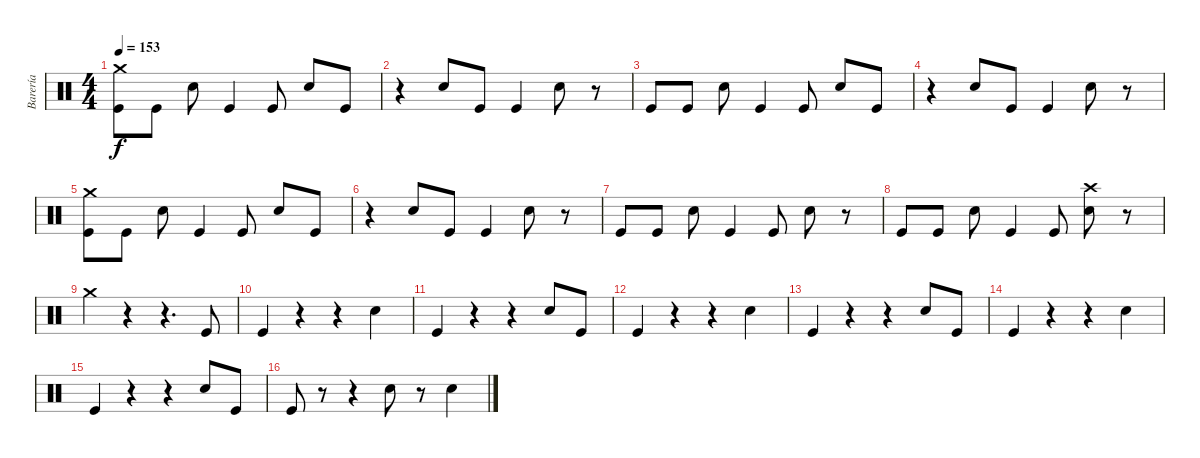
\track ("Barería" "Barería") {instrument percussion}
\staff {score}
\articulation defaults
\ts (4 4)
\tempo 153
\clef neutral
\ks c
("Crash medium (hit)" "Kick (hit)").8{dy f} "Kick (hit)".8 "Snare (hit) 2".8 "Kick (hit)".4 "Kick (hit)".8 "Snare (hit) 2".8 "Kick (hit)".8 |
r.4 "Snare (hit) 2".8 "Kick (hit)".8 "Kick (hit)".4 "Snare (hit) 2".8 r.8 |
"Kick (hit)".8 "Kick (hit)".8 "Snare (hit) 2".8 "Kick (hit)".4 "Kick (hit)".8 "Snare (hit) 2".8 "Kick (hit)".8 |
r.4 "Snare (hit) 2".8 "Kick (hit)".8 "Kick (hit)".4 "Snare (hit) 2".8 r.8 |
("Crash medium (hit)" "Kick (hit)").8 "Kick (hit)".8 "Snare (hit) 2".8 "Kick (hit)".4 "Kick (hit)".8 "Snare (hit) 2".8 "Kick (hit)".8 |
r.4 "Snare (hit) 2".8 "Kick (hit)".8 "Kick (hit)".4 "Snare (hit) 2".8 r.8 |
"Kick (hit)".8 "Kick (hit)".8 "Snare (hit) 2".8 "Kick (hit)".4 "Kick (hit)".8 "Snare (hit) 2".8 r.8 |
"Kick (hit)".8 "Kick (hit)".8 "Snare (hit) 2".8 "Kick (hit)".4 "Kick (hit)".8 ("Crash high (hit)" "Snare (hit) 2").8 r.8 |
"Crash medium (hit)".4 r.4 r.4{d} "Kick (hit)".8 |
"Kick (hit)".4 r.4 r.4 "Snare (hit) 2".4 |
"Kick (hit)".4 r.4 r.4 "Snare (hit) 2".8 "Kick (hit)".8 |
"Kick (hit)".4 r.4 r.4 "Snare (hit) 2".4 |
"Kick (hit)".4 r.4 r.4 "Snare (hit) 2".8 "Kick (hit)".8 |
"Kick (hit)".4 r.4 r.4 "Snare (hit) 2".4 |
"Kick (hit)".4 r.4 r.4 "Snare (hit) 2".8 "Kick (hit)".8 |
"Kick (hit)".8 r.8 r.4 "Snare (hit) 2".8 r.8 "Snare (hit) 2".4
